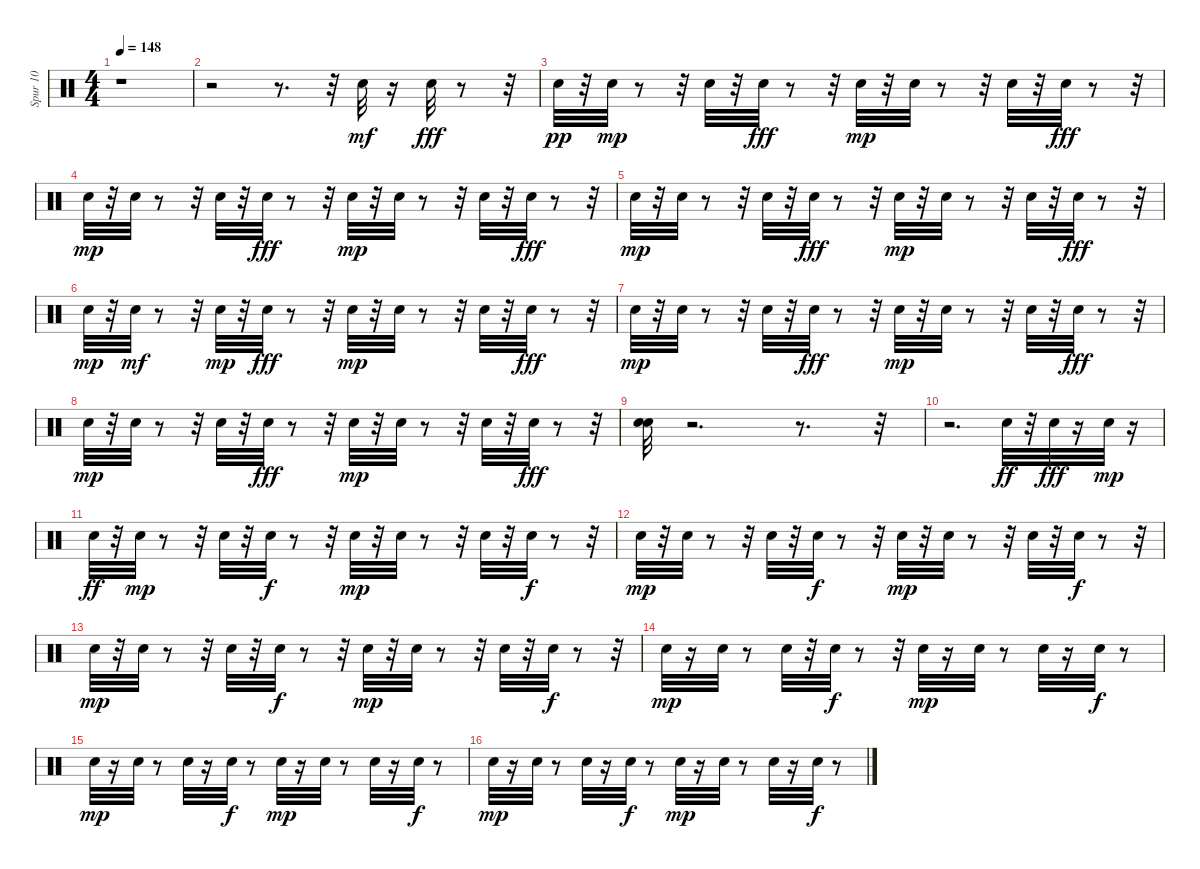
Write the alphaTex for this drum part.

\track ("Spur 10" "Spur 10") {instrument percussion}
\staff {score}
\articulation defaults
\ts (4 4)
\tempo 148
\clef neutral
\ks c
r.1{dy fff} |
r.2 r.8{d} r.32 "Snare (hit) 2".32{dy mf} r.16 "Snare (hit) 2".32{dy fff} r.8 r.32 |
"Snare (hit) 2".32{dy pp} r.32 "Snare (hit) 2".32{dy mp} r.8 r.32 "Snare (hit) 2".32 r.32 "Snare (hit) 2".32{dy fff} r.8 r.32 "Snare (hit) 2".32{dy mp} r.32 "Snare (hit) 2".32 r.8 r.32 "Snare (hit) 2".32 r.32 "Snare (hit) 2".32{dy fff} r.8 r.32 |
"Snare (hit) 2".32{dy mp} r.32 "Snare (hit) 2".32 r.8 r.32 "Snare (hit) 2".32 r.32 "Snare (hit) 2".32{dy fff} r.8 r.32 "Snare (hit) 2".32{dy mp} r.32 "Snare (hit) 2".32 r.8 r.32 "Snare (hit) 2".32 r.32 "Snare (hit) 2".32{dy fff} r.8 r.32 |
"Snare (hit) 2".32{dy mp} r.32 "Snare (hit) 2".32 r.8 r.32 "Snare (hit) 2".32 r.32 "Snare (hit) 2".32{dy fff} r.8 r.32 "Snare (hit) 2".32{dy mp} r.32 "Snare (hit) 2".32 r.8 r.32 "Snare (hit) 2".32 r.32 "Snare (hit) 2".32{dy fff} r.8 r.32 |
"Snare (hit) 2".32{dy mp} r.32 "Snare (hit) 2".32{dy mf} r.8 r.32 "Snare (hit) 2".32{dy mp} r.32 "Snare (hit) 2".32{dy fff} r.8 r.32 "Snare (hit) 2".32{dy mp} r.32 "Snare (hit) 2".32 r.8 r.32 "Snare (hit) 2".32 r.32 "Snare (hit) 2".32{dy fff} r.8 r.32 |
"Snare (hit) 2".32{dy mp} r.32 "Snare (hit) 2".32 r.8 r.32 "Snare (hit) 2".32 r.32 "Snare (hit) 2".32{dy fff} r.8 r.32 "Snare (hit) 2".32{dy mp} r.32 "Snare (hit) 2".32 r.8 r.32 "Snare (hit) 2".32 r.32 "Snare (hit) 2".32{dy fff} r.8 r.32 |
"Snare (hit) 2".32{dy mp} r.32 "Snare (hit) 2".32 r.8 r.32 "Snare (hit) 2".32 r.32 "Snare (hit) 2".32{dy fff} r.8 r.32 "Snare (hit) 2".32{dy mp} r.32 "Snare (hit) 2".32 r.8 r.32 "Snare (hit) 2".32 r.32 "Snare (hit) 2".32{dy fff} r.8 r.32 |
("Electric Snare (hit)" "Snare (hit) 2").32 r.2{d} r.8{d} r.32 |
r.2{d} "Snare (hit) 2".32{dy ff} r.32 "Snare (hit) 2".32{dy fff} r.16 "Snare (hit) 2".32{dy mp} r.16 |
"Snare (hit) 2".32{dy ff} r.32 "Snare (hit) 2".32{dy mp} r.8 r.32 "Snare (hit) 2".32 r.32 "Snare (hit) 2".32{dy f} r.8 r.32 "Snare (hit) 2".32{dy mp} r.32 "Snare (hit) 2".32 r.8 r.32 "Snare (hit) 2".32 r.32 "Snare (hit) 2".32{dy f} r.8 r.32 |
"Snare (hit) 2".32{dy mp} r.32 "Snare (hit) 2".32 r.8 r.32 "Snare (hit) 2".32 r.32 "Snare (hit) 2".32{dy f} r.8 r.32 "Snare (hit) 2".32{dy mp} r.32 "Snare (hit) 2".32 r.8 r.32 "Snare (hit) 2".32 r.32 "Snare (hit) 2".32{dy f} r.8 r.32 |
"Snare (hit) 2".32{dy mp} r.32 "Snare (hit) 2".32 r.8 r.32 "Snare (hit) 2".32 r.32 "Snare (hit) 2".32{dy f} r.8 r.32 "Snare (hit) 2".32{dy mp} r.32 "Snare (hit) 2".32 r.8 r.32 "Snare (hit) 2".32 r.32 "Snare (hit) 2".32{dy f} r.8 r.32 |
"Snare (hit) 2".32{dy mp} r.16 "Snare (hit) 2".32 r.8 "Snare (hit) 2".32 r.32 "Snare (hit) 2".32{dy f} r.8 r.32 "Snare (hit) 2".32{dy mp} r.16 "Snare (hit) 2".32 r.8 "Snare (hit) 2".32 r.16 "Snare (hit) 2".32{dy f} r.8 |
"Snare (hit) 2".32{dy mp} r.16 "Snare (hit) 2".32 r.8 "Snare (hit) 2".32 r.16 "Snare (hit) 2".32{dy f} r.8 "Snare (hit) 2".32{dy mp} r.16 "Snare (hit) 2".32 r.8 "Snare (hit) 2".32 r.16 "Snare (hit) 2".32{dy f} r.8 |
"Snare (hit) 2".32{dy mp} r.16 "Snare (hit) 2".32 r.8 "Snare (hit) 2".32 r.16 "Snare (hit) 2".32{dy f} r.8 "Snare (hit) 2".32{dy mp} r.16 "Snare (hit) 2".32 r.8 "Snare (hit) 2".32 r.16 "Snare (hit) 2".32{dy f} r.8
